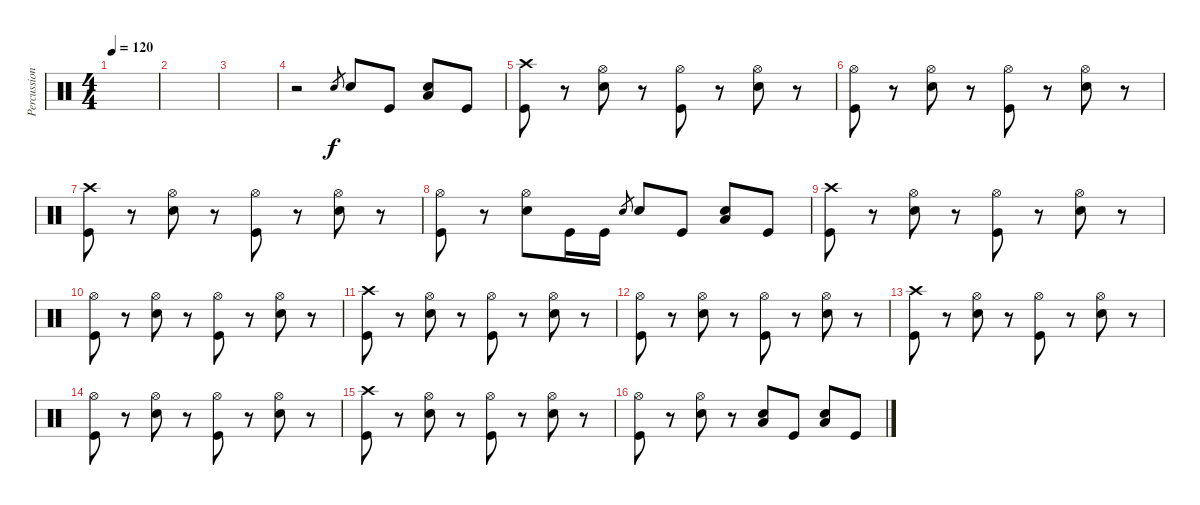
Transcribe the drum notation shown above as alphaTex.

\track ("Percussion" "Percussion") {instrument percussion}
\staff {score}
\articulation defaults
\ts (4 4)
\tempo 120
\clef neutral
\ks c
|
|
|
r.2 "Electric Snare (hit)".8{gr} "Electric Snare (hit)".8 "Kick (hit)".8 ("Electric Snare (hit)" "Low Floor Tom (hit)").8 "Kick (hit)".8 |
("Crash high (hit)" "Kick (hit)").8 r.8 ("Electric Snare (hit)" "Hi-Hat (open)").8 r.8 ("Hi-Hat (open)" "Kick (hit)").8 r.8 ("Electric Snare (hit)" "Hi-Hat (open)").8 r.8 |
("Hi-Hat (open)" "Kick (hit)").8 r.8 ("Electric Snare (hit)" "Hi-Hat (open)").8 r.8 ("Hi-Hat (open)" "Kick (hit)").8 r.8 ("Electric Snare (hit)" "Hi-Hat (open)").8 r.8 |
("Crash high (hit)" "Kick (hit)").8 r.8 ("Electric Snare (hit)" "Hi-Hat (open)").8 r.8 ("Hi-Hat (open)" "Kick (hit)").8 r.8 ("Electric Snare (hit)" "Hi-Hat (open)").8 r.8 |
("Hi-Hat (open)" "Kick (hit)").8 r.8 ("Electric Snare (hit)" "Hi-Hat (open)").8 "Kick (hit)".16 "Kick (hit)".16 "Electric Snare (hit)".8{gr} "Electric Snare (hit)".8 "Kick (hit)".8 ("Electric Snare (hit)" "Low Floor Tom (hit)").8 "Kick (hit)".8 |
("Crash high (hit)" "Kick (hit)").8 r.8 ("Electric Snare (hit)" "Hi-Hat (open)").8 r.8 ("Hi-Hat (open)" "Kick (hit)").8 r.8 ("Electric Snare (hit)" "Hi-Hat (open)").8 r.8 |
("Hi-Hat (open)" "Kick (hit)").8 r.8 ("Electric Snare (hit)" "Hi-Hat (open)").8 r.8 ("Hi-Hat (open)" "Kick (hit)").8 r.8 ("Electric Snare (hit)" "Hi-Hat (open)").8 r.8 |
("Crash high (hit)" "Kick (hit)").8 r.8 ("Electric Snare (hit)" "Hi-Hat (open)").8 r.8 ("Hi-Hat (open)" "Kick (hit)").8 r.8 ("Electric Snare (hit)" "Hi-Hat (open)").8 r.8 |
("Hi-Hat (open)" "Kick (hit)").8 r.8 ("Electric Snare (hit)" "Hi-Hat (open)").8 r.8 ("Hi-Hat (open)" "Kick (hit)").8 r.8 ("Electric Snare (hit)" "Hi-Hat (open)").8 r.8 |
("Crash high (hit)" "Kick (hit)").8 r.8 ("Electric Snare (hit)" "Hi-Hat (open)").8 r.8 ("Hi-Hat (open)" "Kick (hit)").8 r.8 ("Electric Snare (hit)" "Hi-Hat (open)").8 r.8 |
("Hi-Hat (open)" "Kick (hit)").8 r.8 ("Electric Snare (hit)" "Hi-Hat (open)").8 r.8 ("Hi-Hat (open)" "Kick (hit)").8 r.8 ("Electric Snare (hit)" "Hi-Hat (open)").8 r.8 |
("Crash high (hit)" "Kick (hit)").8 r.8 ("Electric Snare (hit)" "Hi-Hat (open)").8 r.8 ("Hi-Hat (open)" "Kick (hit)").8 r.8 ("Electric Snare (hit)" "Hi-Hat (open)").8 r.8 |
("Hi-Hat (open)" "Kick (hit)").8 r.8 ("Electric Snare (hit)" "Hi-Hat (open)").8 r.8 ("Low Tom (hit)" "Electric Snare (hit)").8 "Kick (hit)".8 ("Low Floor Tom (hit)" "Electric Snare (hit)").8 "Kick (hit)".8
